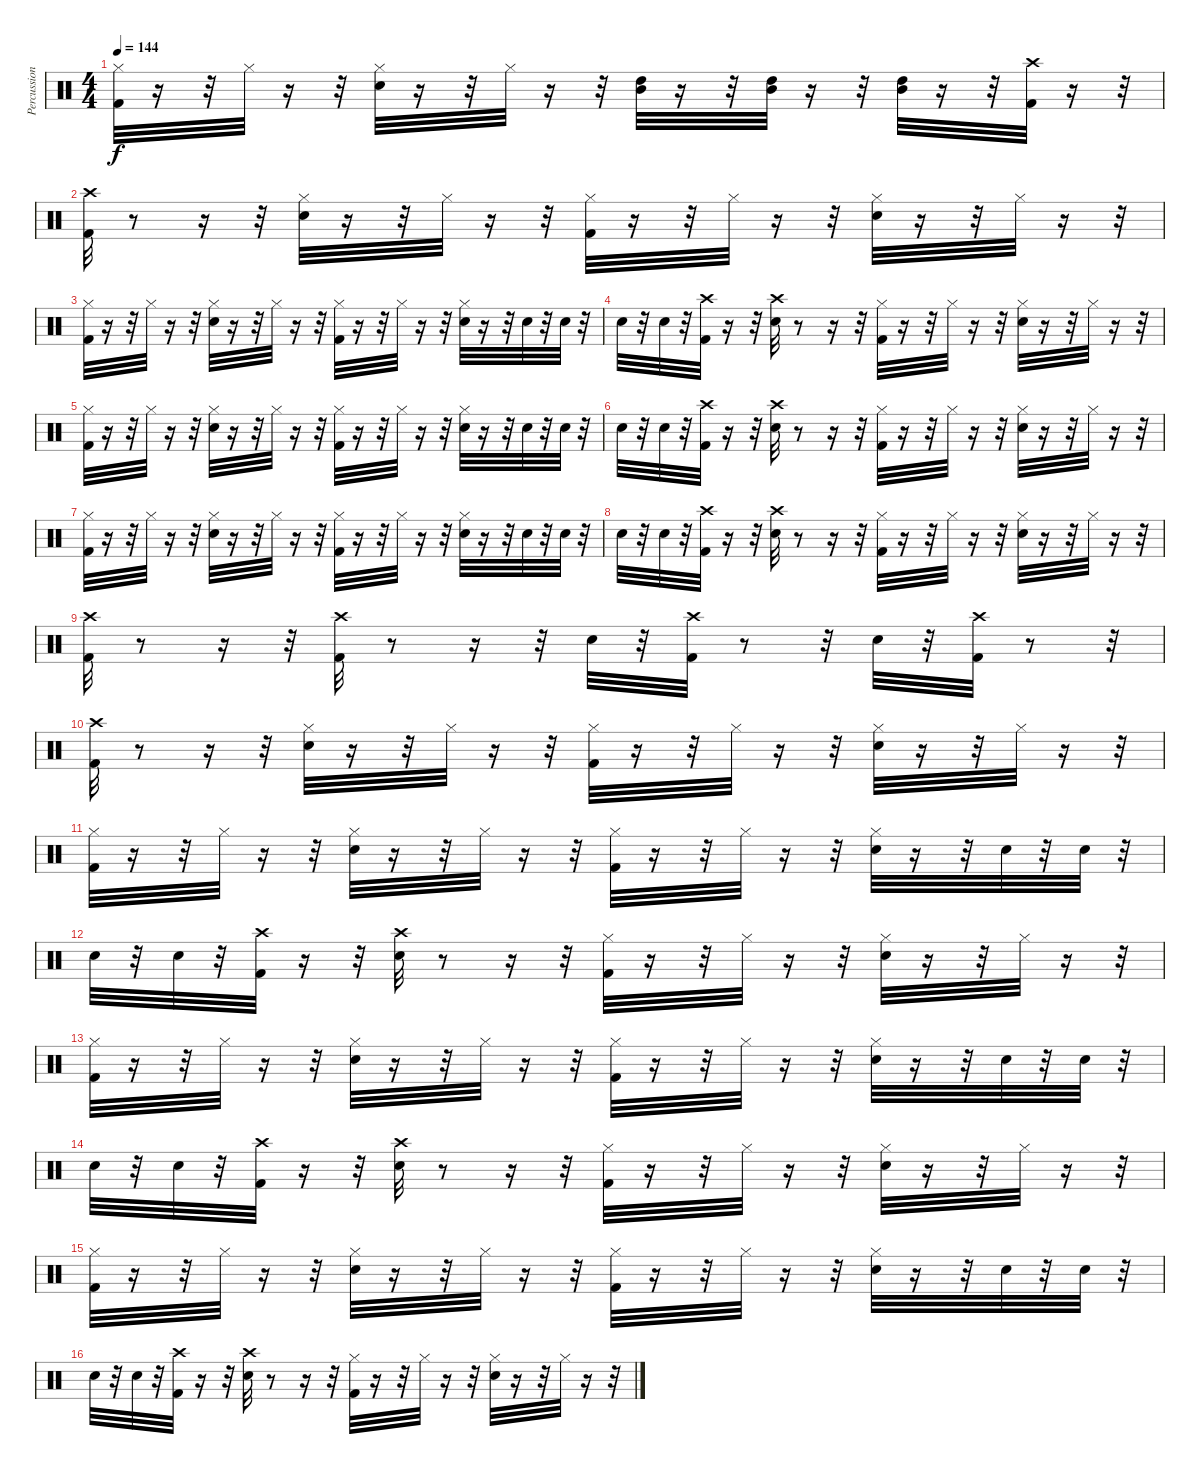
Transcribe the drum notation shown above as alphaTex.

\track ("Percussion" "Percussion") {instrument percussion}
\staff {score}
\articulation defaults
\ts (4 4)
\tempo 144
\clef neutral
\ks c
("Kick (hit) 2" "Hi-Hat (closed)").32{dy f} r.16 r.32 "Hi-Hat (closed)".32 r.16 r.32 ("Snare (hit) 2" "Hi-Hat (closed)").32 r.16 r.32 "Hi-Hat (closed)".32 r.16 r.32 ("High Tom (hit)" "Mid Tom (hit)").32 r.16 r.32 ("Mid Tom (hit)" "High Tom (hit)").32 r.16 r.32 ("Mid Tom (hit)" "High Tom (hit)").32 r.16 r.32 ("Kick (hit) 2" "Crash high (hit)").32 r.16 r.32 |
("Kick (hit) 2" "Crash high (hit)").32 r.8 r.16 r.32 ("Hi-Hat (closed)" "Snare (hit) 2").32 r.16 r.32 "Hi-Hat (closed)".32 r.16 r.32 ("Kick (hit) 2" "Hi-Hat (closed)").32 r.16 r.32 "Hi-Hat (closed)".32 r.16 r.32 ("Snare (hit) 2" "Hi-Hat (closed)").32 r.16 r.32 "Hi-Hat (closed)".32 r.16 r.32 |
("Hi-Hat (closed)" "Kick (hit) 2").32 r.16 r.32 "Hi-Hat (closed)".32 r.16 r.32 ("Snare (hit) 2" "Hi-Hat (closed)").32 r.16 r.32 "Hi-Hat (closed)".32 r.16 r.32 ("Hi-Hat (closed)" "Kick (hit) 2").32 r.16 r.32 "Hi-Hat (closed)".32 r.16 r.32 ("Snare (hit) 2" "Hi-Hat (closed)").32 r.16 r.32 "Snare (hit) 2".32 r.32 "Snare (hit) 2".32 r.32 |
"Snare (hit) 2".32 r.32 "Snare (hit) 2".32 r.32 ("Crash high (hit)" "Kick (hit) 2").32 r.16 r.32 ("Snare (hit) 2" "Crash high (hit)").32 r.8 r.16 r.32 ("Hi-Hat (closed)" "Kick (hit) 2").32 r.16 r.32 "Hi-Hat (closed)".32 r.16 r.32 ("Snare (hit) 2" "Hi-Hat (closed)").32 r.16 r.32 "Hi-Hat (closed)".32 r.16 r.32 |
("Kick (hit) 2" "Hi-Hat (closed)").32 r.16 r.32 "Hi-Hat (closed)".32 r.16 r.32 ("Snare (hit) 2" "Hi-Hat (closed)").32 r.16 r.32 "Hi-Hat (closed)".32 r.16 r.32 ("Kick (hit) 2" "Hi-Hat (closed)").32 r.16 r.32 "Hi-Hat (closed)".32 r.16 r.32 ("Snare (hit) 2" "Hi-Hat (closed)").32 r.16 r.32 "Snare (hit) 2".32 r.32 "Snare (hit) 2".32 r.32 |
"Snare (hit) 2".32 r.32 "Snare (hit) 2".32 r.32 ("Kick (hit) 2" "Crash high (hit)").32 r.16 r.32 ("Snare (hit) 2" "Crash high (hit)").32 r.8 r.16 r.32 ("Kick (hit) 2" "Hi-Hat (closed)").32 r.16 r.32 "Hi-Hat (closed)".32 r.16 r.32 ("Snare (hit) 2" "Hi-Hat (closed)").32 r.16 r.32 "Hi-Hat (closed)".32 r.16 r.32 |
("Kick (hit) 2" "Hi-Hat (closed)").32 r.16 r.32 "Hi-Hat (closed)".32 r.16 r.32 ("Snare (hit) 2" "Hi-Hat (closed)").32 r.16 r.32 "Hi-Hat (closed)".32 r.16 r.32 ("Kick (hit) 2" "Hi-Hat (closed)").32 r.16 r.32 "Hi-Hat (closed)".32 r.16 r.32 ("Snare (hit) 2" "Hi-Hat (closed)").32 r.16 r.32 "Snare (hit) 2".32 r.32 "Snare (hit) 2".32 r.32 |
"Snare (hit) 2".32 r.32 "Snare (hit) 2".32 r.32 ("Crash high (hit)" "Kick (hit) 2").32 r.16 r.32 ("Crash high (hit)" "Snare (hit) 2").32 r.8 r.16 r.32 ("Kick (hit) 2" "Hi-Hat (closed)").32 r.16 r.32 "Hi-Hat (closed)".32 r.16 r.32 ("Snare (hit) 2" "Hi-Hat (closed)").32 r.16 r.32 "Hi-Hat (closed)".32 r.16 r.32 |
("Kick (hit) 2" "Crash high (hit)").32 r.8 r.16 r.32 ("Kick (hit) 2" "Crash high (hit)").32 r.8 r.16 r.32 "Snare (hit) 2".32 r.32 ("Kick (hit) 2" "Crash high (hit)").32 r.8 r.32 "Snare (hit) 2".32 r.32 ("Kick (hit) 2" "Crash high (hit)").32 r.8 r.32 |
("Kick (hit) 2" "Crash high (hit)").32 r.8 r.16 r.32 ("Hi-Hat (closed)" "Snare (hit) 2").32 r.16 r.32 "Hi-Hat (closed)".32 r.16 r.32 ("Kick (hit) 2" "Hi-Hat (closed)").32 r.16 r.32 "Hi-Hat (closed)".32 r.16 r.32 ("Snare (hit) 2" "Hi-Hat (closed)").32 r.16 r.32 "Hi-Hat (closed)".32 r.16 r.32 |
("Hi-Hat (closed)" "Kick (hit) 2").32 r.16 r.32 "Hi-Hat (closed)".32 r.16 r.32 ("Snare (hit) 2" "Hi-Hat (closed)").32 r.16 r.32 "Hi-Hat (closed)".32 r.16 r.32 ("Hi-Hat (closed)" "Kick (hit) 2").32 r.16 r.32 "Hi-Hat (closed)".32 r.16 r.32 ("Snare (hit) 2" "Hi-Hat (closed)").32 r.16 r.32 "Snare (hit) 2".32 r.32 "Snare (hit) 2".32 r.32 |
"Snare (hit) 2".32 r.32 "Snare (hit) 2".32 r.32 ("Crash high (hit)" "Kick (hit) 2").32 r.16 r.32 ("Snare (hit) 2" "Crash high (hit)").32 r.8 r.16 r.32 ("Hi-Hat (closed)" "Kick (hit) 2").32 r.16 r.32 "Hi-Hat (closed)".32 r.16 r.32 ("Snare (hit) 2" "Hi-Hat (closed)").32 r.16 r.32 "Hi-Hat (closed)".32 r.16 r.32 |
("Kick (hit) 2" "Hi-Hat (closed)").32 r.16 r.32 "Hi-Hat (closed)".32 r.16 r.32 ("Snare (hit) 2" "Hi-Hat (closed)").32 r.16 r.32 "Hi-Hat (closed)".32 r.16 r.32 ("Kick (hit) 2" "Hi-Hat (closed)").32 r.16 r.32 "Hi-Hat (closed)".32 r.16 r.32 ("Snare (hit) 2" "Hi-Hat (closed)").32 r.16 r.32 "Snare (hit) 2".32 r.32 "Snare (hit) 2".32 r.32 |
"Snare (hit) 2".32 r.32 "Snare (hit) 2".32 r.32 ("Kick (hit) 2" "Crash high (hit)").32 r.16 r.32 ("Snare (hit) 2" "Crash high (hit)").32 r.8 r.16 r.32 ("Kick (hit) 2" "Hi-Hat (closed)").32 r.16 r.32 "Hi-Hat (closed)".32 r.16 r.32 ("Snare (hit) 2" "Hi-Hat (closed)").32 r.16 r.32 "Hi-Hat (closed)".32 r.16 r.32 |
("Kick (hit) 2" "Hi-Hat (closed)").32 r.16 r.32 "Hi-Hat (closed)".32 r.16 r.32 ("Snare (hit) 2" "Hi-Hat (closed)").32 r.16 r.32 "Hi-Hat (closed)".32 r.16 r.32 ("Kick (hit) 2" "Hi-Hat (closed)").32 r.16 r.32 "Hi-Hat (closed)".32 r.16 r.32 ("Snare (hit) 2" "Hi-Hat (closed)").32 r.16 r.32 "Snare (hit) 2".32 r.32 "Snare (hit) 2".32 r.32 |
"Snare (hit) 2".32 r.32 "Snare (hit) 2".32 r.32 ("Crash high (hit)" "Kick (hit) 2").32 r.16 r.32 ("Crash high (hit)" "Snare (hit) 2").32 r.8 r.16 r.32 ("Kick (hit) 2" "Hi-Hat (closed)").32 r.16 r.32 "Hi-Hat (closed)".32 r.16 r.32 ("Snare (hit) 2" "Hi-Hat (closed)").32 r.16 r.32 "Hi-Hat (closed)".32 r.16 r.32
